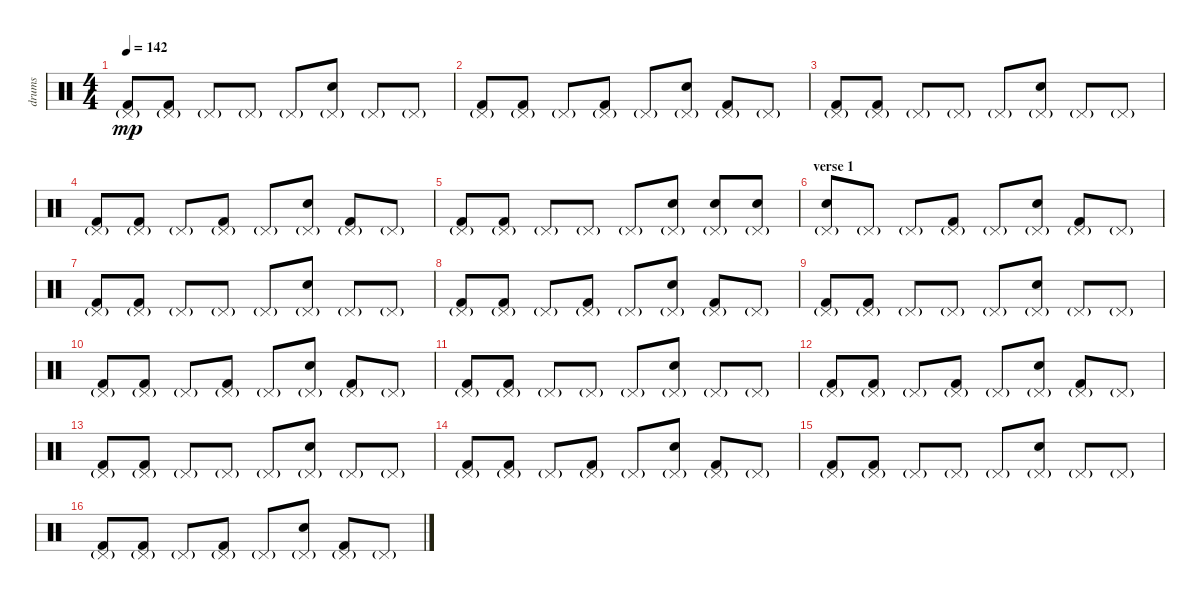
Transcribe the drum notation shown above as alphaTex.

\track ("drums" "drums") {instrument percussion}
\staff {score}
\articulation defaults
\ts (4 4)
\tempo 142
\clef neutral
\ks c
("Kick (hit) 2" "Pedal Hi-Hat (hit)"{g}).8{dy mp} ("Kick (hit) 2" "Pedal Hi-Hat (hit)"{g}).8 "Pedal Hi-Hat (hit)"{g}.8 "Pedal Hi-Hat (hit)"{g}.8 "Pedal Hi-Hat (hit)"{g}.8 ("Snare (hit) 2" "Pedal Hi-Hat (hit)"{g}).8 "Pedal Hi-Hat (hit)"{g}.8 "Pedal Hi-Hat (hit)"{g}.8 |
("Kick (hit) 2" "Pedal Hi-Hat (hit)"{g}).8 ("Kick (hit) 2" "Pedal Hi-Hat (hit)"{g}).8 "Pedal Hi-Hat (hit)"{g}.8 ("Kick (hit) 2" "Pedal Hi-Hat (hit)"{g}).8 "Pedal Hi-Hat (hit)"{g}.8 ("Snare (hit) 2" "Pedal Hi-Hat (hit)"{g}).8 ("Kick (hit) 2" "Pedal Hi-Hat (hit)"{g}).8 "Pedal Hi-Hat (hit)"{g}.8 |
("Kick (hit) 2" "Pedal Hi-Hat (hit)"{g}).8 ("Kick (hit) 2" "Pedal Hi-Hat (hit)"{g}).8 "Pedal Hi-Hat (hit)"{g}.8 "Pedal Hi-Hat (hit)"{g}.8 "Pedal Hi-Hat (hit)"{g}.8 ("Snare (hit) 2" "Pedal Hi-Hat (hit)"{g}).8 "Pedal Hi-Hat (hit)"{g}.8 "Pedal Hi-Hat (hit)"{g}.8 |
("Kick (hit) 2" "Pedal Hi-Hat (hit)"{g}).8 ("Kick (hit) 2" "Pedal Hi-Hat (hit)"{g}).8 "Pedal Hi-Hat (hit)"{g}.8 ("Kick (hit) 2" "Pedal Hi-Hat (hit)"{g}).8 "Pedal Hi-Hat (hit)"{g}.8 ("Snare (hit) 2" "Pedal Hi-Hat (hit)"{g}).8 ("Kick (hit) 2" "Pedal Hi-Hat (hit)"{g}).8 "Pedal Hi-Hat (hit)"{g}.8 |
("Kick (hit) 2" "Pedal Hi-Hat (hit)"{g}).8 ("Kick (hit) 2" "Pedal Hi-Hat (hit)"{g}).8 "Pedal Hi-Hat (hit)"{g}.8 "Pedal Hi-Hat (hit)"{g}.8 "Pedal Hi-Hat (hit)"{g}.8 ("Snare (hit) 2" "Pedal Hi-Hat (hit)"{g}).8 ("Snare (hit) 2" "Pedal Hi-Hat (hit)"{g}).8 ("Snare (hit) 2" "Pedal Hi-Hat (hit)"{g}).8 |
\section ("" "verse 1")
("Snare (hit) 2" "Pedal Hi-Hat (hit)"{g}).8 "Pedal Hi-Hat (hit)"{g}.8 "Pedal Hi-Hat (hit)"{g}.8 ("Kick (hit) 2" "Pedal Hi-Hat (hit)"{g}).8 "Pedal Hi-Hat (hit)"{g}.8 ("Snare (hit) 2" "Pedal Hi-Hat (hit)"{g}).8 ("Kick (hit) 2" "Pedal Hi-Hat (hit)"{g}).8 "Pedal Hi-Hat (hit)"{g}.8 |
("Kick (hit) 2" "Pedal Hi-Hat (hit)"{g}).8 ("Kick (hit) 2" "Pedal Hi-Hat (hit)"{g}).8 "Pedal Hi-Hat (hit)"{g}.8 "Pedal Hi-Hat (hit)"{g}.8 "Pedal Hi-Hat (hit)"{g}.8 ("Snare (hit) 2" "Pedal Hi-Hat (hit)"{g}).8 "Pedal Hi-Hat (hit)"{g}.8 "Pedal Hi-Hat (hit)"{g}.8 |
("Kick (hit) 2" "Pedal Hi-Hat (hit)"{g}).8 ("Kick (hit) 2" "Pedal Hi-Hat (hit)"{g}).8 "Pedal Hi-Hat (hit)"{g}.8 ("Kick (hit) 2" "Pedal Hi-Hat (hit)"{g}).8 "Pedal Hi-Hat (hit)"{g}.8 ("Snare (hit) 2" "Pedal Hi-Hat (hit)"{g}).8 ("Kick (hit) 2" "Pedal Hi-Hat (hit)"{g}).8 "Pedal Hi-Hat (hit)"{g}.8 |
("Kick (hit) 2" "Pedal Hi-Hat (hit)"{g}).8 ("Kick (hit) 2" "Pedal Hi-Hat (hit)"{g}).8 "Pedal Hi-Hat (hit)"{g}.8 "Pedal Hi-Hat (hit)"{g}.8 "Pedal Hi-Hat (hit)"{g}.8 ("Snare (hit) 2" "Pedal Hi-Hat (hit)"{g}).8 "Pedal Hi-Hat (hit)"{g}.8 "Pedal Hi-Hat (hit)"{g}.8 |
("Kick (hit) 2" "Pedal Hi-Hat (hit)"{g}).8 ("Kick (hit) 2" "Pedal Hi-Hat (hit)"{g}).8 "Pedal Hi-Hat (hit)"{g}.8 ("Kick (hit) 2" "Pedal Hi-Hat (hit)"{g}).8 "Pedal Hi-Hat (hit)"{g}.8 ("Snare (hit) 2" "Pedal Hi-Hat (hit)"{g}).8 ("Kick (hit) 2" "Pedal Hi-Hat (hit)"{g}).8 "Pedal Hi-Hat (hit)"{g}.8 |
("Kick (hit) 2" "Pedal Hi-Hat (hit)"{g}).8 ("Kick (hit) 2" "Pedal Hi-Hat (hit)"{g}).8 "Pedal Hi-Hat (hit)"{g}.8 "Pedal Hi-Hat (hit)"{g}.8 "Pedal Hi-Hat (hit)"{g}.8 ("Snare (hit) 2" "Pedal Hi-Hat (hit)"{g}).8 "Pedal Hi-Hat (hit)"{g}.8 "Pedal Hi-Hat (hit)"{g}.8 |
("Kick (hit) 2" "Pedal Hi-Hat (hit)"{g}).8 ("Kick (hit) 2" "Pedal Hi-Hat (hit)"{g}).8 "Pedal Hi-Hat (hit)"{g}.8 ("Kick (hit) 2" "Pedal Hi-Hat (hit)"{g}).8 "Pedal Hi-Hat (hit)"{g}.8 ("Snare (hit) 2" "Pedal Hi-Hat (hit)"{g}).8 ("Kick (hit) 2" "Pedal Hi-Hat (hit)"{g}).8 "Pedal Hi-Hat (hit)"{g}.8 |
("Kick (hit) 2" "Pedal Hi-Hat (hit)"{g}).8 ("Kick (hit) 2" "Pedal Hi-Hat (hit)"{g}).8 "Pedal Hi-Hat (hit)"{g}.8 "Pedal Hi-Hat (hit)"{g}.8 "Pedal Hi-Hat (hit)"{g}.8 ("Snare (hit) 2" "Pedal Hi-Hat (hit)"{g}).8 "Pedal Hi-Hat (hit)"{g}.8 "Pedal Hi-Hat (hit)"{g}.8 |
("Kick (hit) 2" "Pedal Hi-Hat (hit)"{g}).8 ("Kick (hit) 2" "Pedal Hi-Hat (hit)"{g}).8 "Pedal Hi-Hat (hit)"{g}.8 ("Kick (hit) 2" "Pedal Hi-Hat (hit)"{g}).8 "Pedal Hi-Hat (hit)"{g}.8 ("Snare (hit) 2" "Pedal Hi-Hat (hit)"{g}).8 ("Kick (hit) 2" "Pedal Hi-Hat (hit)"{g}).8 "Pedal Hi-Hat (hit)"{g}.8 |
("Kick (hit) 2" "Pedal Hi-Hat (hit)"{g}).8 ("Kick (hit) 2" "Pedal Hi-Hat (hit)"{g}).8 "Pedal Hi-Hat (hit)"{g}.8 "Pedal Hi-Hat (hit)"{g}.8 "Pedal Hi-Hat (hit)"{g}.8 ("Snare (hit) 2" "Pedal Hi-Hat (hit)"{g}).8 "Pedal Hi-Hat (hit)"{g}.8 "Pedal Hi-Hat (hit)"{g}.8 |
("Kick (hit) 2" "Pedal Hi-Hat (hit)"{g}).8 ("Kick (hit) 2" "Pedal Hi-Hat (hit)"{g}).8 "Pedal Hi-Hat (hit)"{g}.8 ("Kick (hit) 2" "Pedal Hi-Hat (hit)"{g}).8 "Pedal Hi-Hat (hit)"{g}.8 ("Snare (hit) 2" "Pedal Hi-Hat (hit)"{g}).8 ("Kick (hit) 2" "Pedal Hi-Hat (hit)"{g}).8 "Pedal Hi-Hat (hit)"{g}.8
